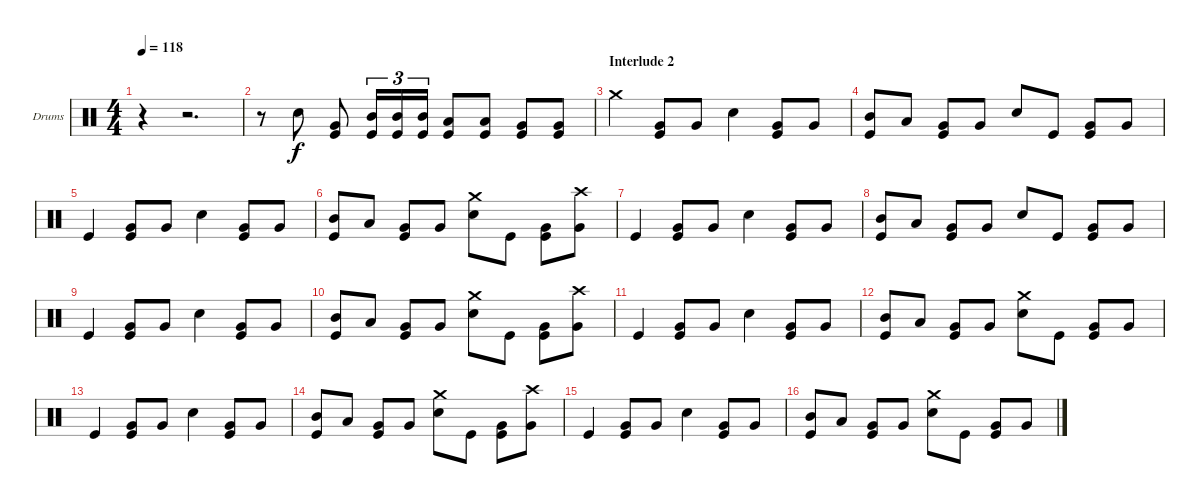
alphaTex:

\bracketExtendMode groupsimilarinstruments
\firstSystemTrackNameOrientation horizontal
\otherSystemsTrackNameOrientation horizontal
\track ("Drumkit" "Drums") {solo instrument percussion}
\staff {score}
\articulation defaults
\ts (4 4)
\tempo 118
\clef neutral
\ks c
r.4{dy f} r.2{d} |
r.8 "Snare (hit) 2".8 ("Kick (hit)" "Very Low Tom (hit)").8 ("Kick (hit)" "Mid Tom (hit)").16{tu (3 2)} ("Kick (hit)" "Mid Tom (hit)").16{tu (3 2)} ("Kick (hit)" "Mid Tom (hit)").16{tu (3 2)} ("Kick (hit)" "Low Tom (hit)").8 ("Kick (hit)" "Low Tom (hit)").8 ("Kick (hit)" "Very Low Tom (hit)").8 ("Kick (hit)" "Very Low Tom (hit)").8 |
\section ("" "Interlude 2")
"Crash medium (hit)".4 ("Kick (hit)" "Very Low Tom (hit)").8 "Very Low Tom (hit)".8 "Snare (hit) 2".4 ("Kick (hit)" "Very Low Tom (hit)").8 "Very Low Tom (hit)".8 |
("Kick (hit)" "Mid Tom (hit)").8 "Low Tom (hit)".8 ("Kick (hit)" "Very Low Tom (hit)").8 "Very Low Tom (hit)".8 "Snare (hit) 2".8 "Kick (hit)".8 ("Kick (hit)" "Very Low Tom (hit)").8 "Very Low Tom (hit)".8 |
"Kick (hit)".4 ("Kick (hit)" "Very Low Tom (hit)").8 "Very Low Tom (hit)".8 "Snare (hit) 2".4 ("Kick (hit)" "Very Low Tom (hit)").8 "Very Low Tom (hit)".8 |
("Kick (hit)" "Mid Tom (hit)").8 "Low Tom (hit)".8 ("Kick (hit)" "Very Low Tom (hit)").8 "Very Low Tom (hit)".8 ("Snare (hit) 2" "Crash medium (hit)").8 "Kick (hit)".8 ("Kick (hit)" "Very Low Tom (hit)").8 ("Very Low Tom (hit)" "Crash high (hit)").8 |
"Kick (hit)".4 ("Kick (hit)" "Very Low Tom (hit)").8 "Very Low Tom (hit)".8 "Snare (hit) 2".4 ("Kick (hit)" "Very Low Tom (hit)").8 "Very Low Tom (hit)".8 |
("Kick (hit)" "Mid Tom (hit)").8 "Low Tom (hit)".8 ("Kick (hit)" "Very Low Tom (hit)").8 "Very Low Tom (hit)".8 "Snare (hit) 2".8 "Kick (hit)".8 ("Kick (hit)" "Very Low Tom (hit)").8 "Very Low Tom (hit)".8 |
"Kick (hit)".4 ("Kick (hit)" "Very Low Tom (hit)").8 "Very Low Tom (hit)".8 "Snare (hit) 2".4 ("Kick (hit)" "Very Low Tom (hit)").8 "Very Low Tom (hit)".8 |
("Kick (hit)" "Mid Tom (hit)").8 "Low Tom (hit)".8 ("Kick (hit)" "Very Low Tom (hit)").8 "Very Low Tom (hit)".8 ("Snare (hit) 2" "Crash medium (hit)").8 "Kick (hit)".8 ("Kick (hit)" "Very Low Tom (hit)").8 ("Very Low Tom (hit)" "Crash high (hit)").8 |
"Kick (hit)".4 ("Kick (hit)" "Very Low Tom (hit)").8 "Very Low Tom (hit)".8 "Snare (hit) 2".4 ("Kick (hit)" "Very Low Tom (hit)").8 "Very Low Tom (hit)".8 |
("Kick (hit)" "Mid Tom (hit)").8 "Low Tom (hit)".8 ("Kick (hit)" "Very Low Tom (hit)").8 "Very Low Tom (hit)".8 ("Snare (hit) 2" "Crash medium (hit)").8 "Kick (hit)".8 ("Kick (hit)" "Very Low Tom (hit)").8 "Very Low Tom (hit)".8 |
"Kick (hit)".4 ("Kick (hit)" "Very Low Tom (hit)").8 "Very Low Tom (hit)".8 "Snare (hit) 2".4 ("Kick (hit)" "Very Low Tom (hit)").8 "Very Low Tom (hit)".8 |
("Kick (hit)" "Mid Tom (hit)").8 "Low Tom (hit)".8 ("Kick (hit)" "Very Low Tom (hit)").8 "Very Low Tom (hit)".8 ("Snare (hit) 2" "Crash medium (hit)").8 "Kick (hit)".8 ("Kick (hit)" "Very Low Tom (hit)").8 ("Very Low Tom (hit)" "Crash high (hit)").8 |
"Kick (hit)".4 ("Kick (hit)" "Very Low Tom (hit)").8 "Very Low Tom (hit)".8 "Snare (hit) 2".4 ("Kick (hit)" "Very Low Tom (hit)").8 "Very Low Tom (hit)".8 |
("Kick (hit)" "Mid Tom (hit)").8 "Low Tom (hit)".8 ("Kick (hit)" "Very Low Tom (hit)").8 "Very Low Tom (hit)".8 ("Snare (hit) 2" "Crash medium (hit)").8 "Kick (hit)".8 ("Kick (hit)" "Very Low Tom (hit)").8 "Very Low Tom (hit)".8
